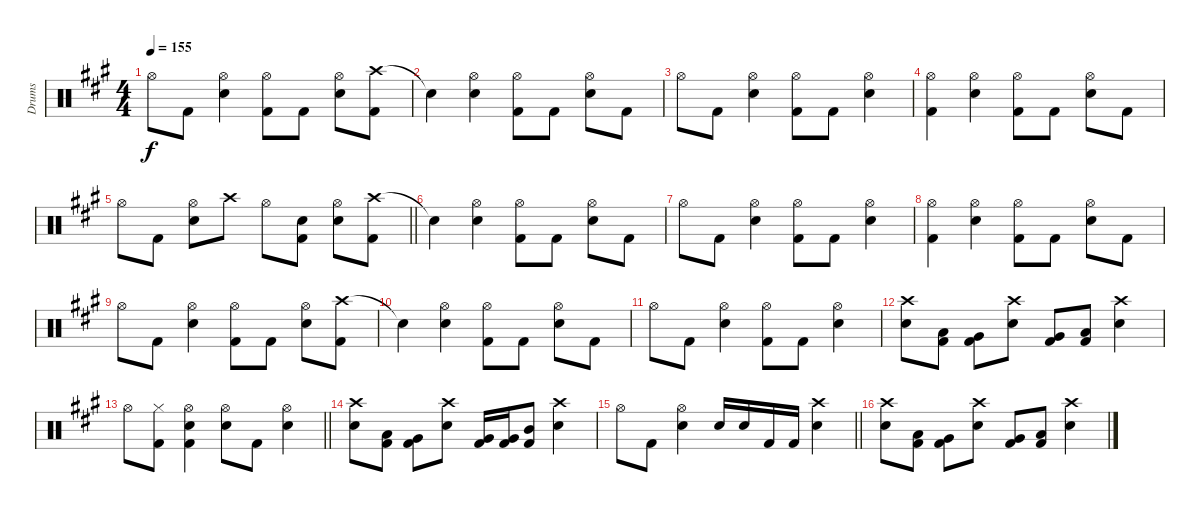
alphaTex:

\track ("Drums" "Drums") {instrument percussion}
\staff {score}
\articulation defaults
\ts (4 4)
\tempo 155
\clef neutral
\ks a "Hi-Hat (open)".8{dy f} "Kick (hit) 2".8
("Hi-Hat (open)" "Snare (hit) 2").4 ("Hi-Hat (open)" "Kick (hit) 2").8 "Kick (hit) 2".8 ("Hi-Hat (open)" "Snare (hit) 2").8 ("Crash high (hit)" "Kick (hit) 2").8 |
"Snare (hit)"{t}.4 ("Hi-Hat (open)" "Snare (hit) 2").4 ("Hi-Hat (open)" "Kick (hit) 2").8 "Kick (hit) 2".8 ("Hi-Hat (open)" "Snare (hit) 2").8 "Kick (hit) 2".8 |
"Hi-Hat (open)".8 "Kick (hit) 2".8 ("Hi-Hat (open)" "Snare (hit) 2").4 ("Hi-Hat (open)" "Kick (hit) 2").8 "Kick (hit) 2".8 ("Hi-Hat (open)" "Snare (hit) 2").4 |
("Hi-Hat (open)" "Kick (hit) 2").4 ("Hi-Hat (open)" "Snare (hit) 2").4 ("Hi-Hat (open)" "Kick (hit) 2").8 "Kick (hit) 2".8 ("Hi-Hat (open)" "Snare (hit) 2").8 "Kick (hit) 2".8 |
\barLineRight lightlight "Hi-Hat (open)".8 "Kick (hit) 2".8
("Hi-Hat (open)" "Snare (hit) 2").8 "Crash high (hit)".8 "Hi-Hat (open)".8 ("Snare (hit) 2" "Kick (hit) 2").8 ("Hi-Hat (open)" "Snare (hit) 2").8 ("Crash high (hit)" "Kick (hit) 2").8 |
"Snare (hit)"{t}.4 ("Hi-Hat (open)" "Snare (hit) 2").4 ("Hi-Hat (open)" "Kick (hit) 2").8 "Kick (hit) 2".8 ("Hi-Hat (open)" "Snare (hit) 2").8 "Kick (hit) 2".8 |
"Hi-Hat (open)".8 "Kick (hit) 2".8 ("Hi-Hat (open)" "Snare (hit) 2").4 ("Hi-Hat (open)" "Kick (hit) 2").8 "Kick (hit) 2".8 ("Hi-Hat (open)" "Snare (hit) 2").4 |
("Hi-Hat (open)" "Kick (hit) 2").4 ("Hi-Hat (open)" "Snare (hit) 2").4 ("Hi-Hat (open)" "Kick (hit) 2").8 "Kick (hit) 2".8 ("Hi-Hat (open)" "Snare (hit) 2").8 "Kick (hit) 2".8 |
"Hi-Hat (open)".8 "Kick (hit) 2".8 ("Hi-Hat (open)" "Snare (hit) 2").4 ("Hi-Hat (open)" "Kick (hit) 2").8 "Kick (hit) 2".8 ("Hi-Hat (open)" "Snare (hit) 2").8 ("Crash high (hit)" "Kick (hit) 2").8 |
"Snare (hit)"{t}.4 ("Hi-Hat (open)" "Snare (hit) 2").4 ("Hi-Hat (open)" "Kick (hit) 2").8 "Kick (hit) 2".8 ("Hi-Hat (open)" "Snare (hit) 2").8 "Kick (hit) 2".8 |
"Hi-Hat (open)".8 "Kick (hit) 2".8 ("Hi-Hat (open)" "Snare (hit) 2").4 ("Hi-Hat (open)" "Kick (hit) 2").8 "Kick (hit) 2".8 ("Hi-Hat (open)" "Snare (hit) 2").4 |
("Crash high (hit)" "Snare (hit) 2").8 ("Low Tom (hit)" "Kick (hit) 2").8 ("Very Low Tom (hit)" "Kick (hit) 2").8 ("Crash high (hit)" "Snare (hit) 2").8 ("Very Low Tom (hit)" "Kick (hit) 2").8 ("Low Floor Tom (hit)" "Kick (hit) 2").8 ("Crash high (hit)" "Snare (hit) 2").4 |
\barLineRight lightlight "Hi-Hat (open)".8
("Hi-Hat (closed)" "Kick (hit) 2").8 ("Hi-Hat (open)" "Snare (hit) 2" "Kick (hit) 2").4 ("Hi-Hat (open)" "Snare (hit) 2").8 "Kick (hit) 2".8 ("Hi-Hat (open)" "Snare (hit) 2").4 |
("Crash high (hit)" "Snare (hit) 2").8 ("Low Tom (hit)" "Kick (hit) 2").8 ("Very Low Tom (hit)" "Kick (hit) 2").8 ("Crash high (hit)" "Snare (hit) 2").8 ("Very Low Tom (hit)" "Kick (hit) 2").16 ("Very Low Tom (hit)" "Kick (hit) 2").16 ("Mid Tom (hit)" "Kick (hit) 2").8 ("Crash high (hit)" "Snare (hit) 2").4 |
\barLineRight lightlight "Hi-Hat (open)".8 "Kick (hit) 2".8
("Hi-Hat (open)" "Snare (hit) 2").4 "Snare (hit) 2".16 "Snare (hit) 2".16 "Kick (hit) 2".16 "Kick (hit) 2".16 ("Crash high (hit)" "Snare (hit) 2").4 |
("Crash high (hit)" "Snare (hit) 2").8 ("Low Tom (hit)" "Kick (hit) 2").8 ("Very Low Tom (hit)" "Kick (hit) 2").8 ("Crash high (hit)" "Snare (hit) 2").8 ("Very Low Tom (hit)" "Kick (hit) 2").8 ("Low Floor Tom (hit)" "Kick (hit) 2").8 ("Crash high (hit)" "Snare (hit) 2").4
